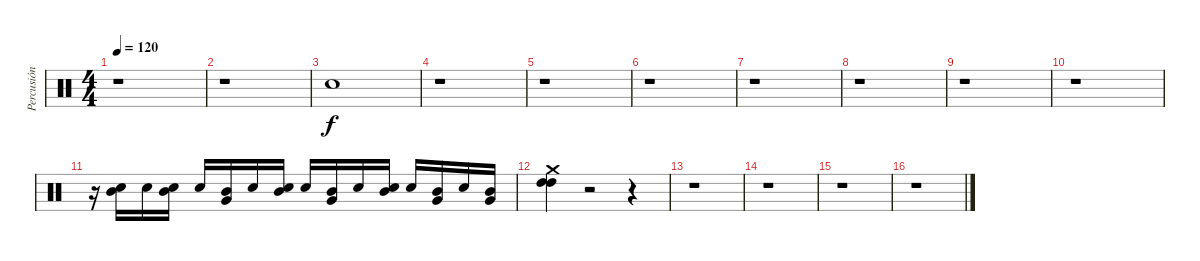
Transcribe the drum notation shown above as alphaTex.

\track ("Percusión" "Percusión") {instrument percussion}
\staff {score}
\articulation defaults
\ts (4 4)
\tempo 120
\clef neutral
\ks c
r.1{dy f} |
r.1 |
"Snare (hit)".1 |
r.1 |
r.1 |
r.1 |
r.1 |
r.1 |
r.1 |
r.1 |
r.16 ("Snare (hit) 2" "Mid Tom (hit)").16 "Snare (hit) 2".16 ("Snare (hit) 2" "Mid Tom (hit)").16 "Snare (hit) 2".16 ("Very Low Tom (hit)" "Mid Tom (hit)").16 "Snare (hit) 2".16 ("Snare (hit) 2" "Mid Tom (hit)").16 "Snare (hit) 2".16 ("Very Low Tom (hit)" "Mid Tom (hit)").16 "Snare (hit) 2".16 ("Snare (hit) 2" "Mid Tom (hit)").16 "Snare (hit) 2".16 ("Very Low Tom (hit)" "Mid Tom (hit)").16 "Snare (hit) 2".16 ("Very Low Tom (hit)" "Mid Tom (hit)").16 |
("Crash medium (hit)" "High Tom (hit)" "High Tom (hit)").4 r.2 r.4 |
r.1 |
r.1 |
r.1 |
r.1
